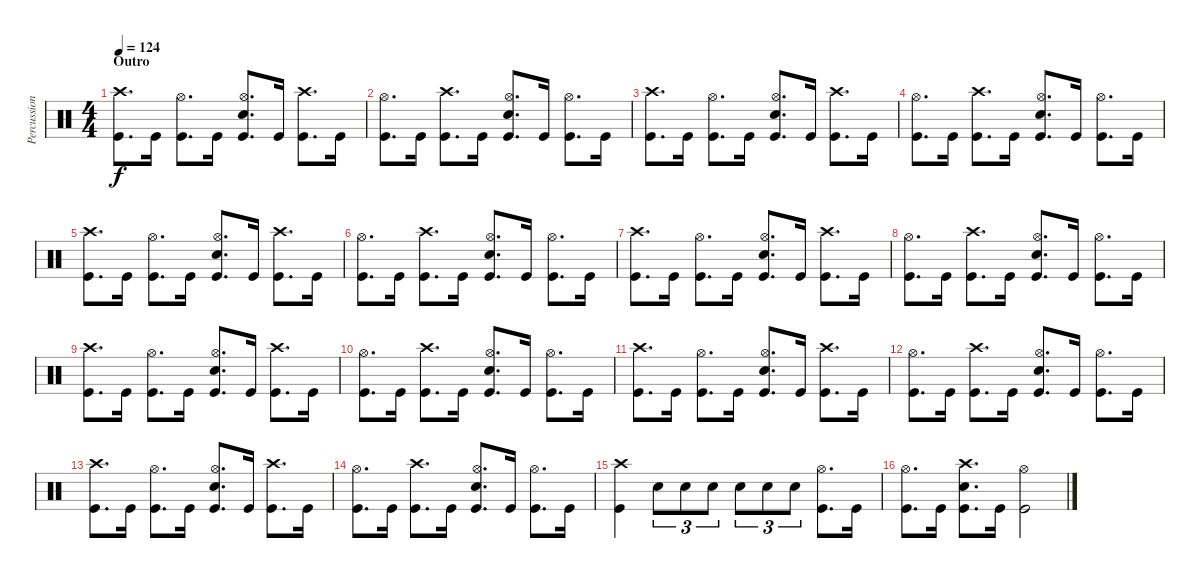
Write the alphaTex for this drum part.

\track ("Percussions" "Percussion") {instrument percussion}
\staff {score}
\articulation defaults
\ts (4 4)
\section ("" "Outro")
\tempo 124
\clef neutral
\ks c
("Crash high (hit)" "Kick (hit)").8{d dy f} "Kick (hit)".16 ("Hi-Hat (open)" "Kick (hit)").8{d} "Kick (hit)".16 ("Hi-Hat (open)" "Electric Snare (hit)" "Kick (hit)").8{d} "Kick (hit)".16 ("Crash high (hit)" "Kick (hit)").8{d} "Kick (hit)".16 |
("Hi-Hat (open)" "Kick (hit)").8{d} "Kick (hit)".16 ("Crash high (hit)" "Kick (hit)").8{d} "Kick (hit)".16 ("Hi-Hat (open)" "Electric Snare (hit)" "Kick (hit)").8{d} "Kick (hit)".16 ("Hi-Hat (open)" "Kick (hit)").8{d} "Kick (hit)".16 |
("Crash high (hit)" "Kick (hit)").8{d} "Kick (hit)".16 ("Hi-Hat (open)" "Kick (hit)").8{d} "Kick (hit)".16 ("Hi-Hat (open)" "Electric Snare (hit)" "Kick (hit)").8{d} "Kick (hit)".16 ("Crash high (hit)" "Kick (hit)").8{d} "Kick (hit)".16 |
("Hi-Hat (open)" "Kick (hit)").8{d} "Kick (hit)".16 ("Crash high (hit)" "Kick (hit)").8{d} "Kick (hit)".16 ("Hi-Hat (open)" "Electric Snare (hit)" "Kick (hit)").8{d} "Kick (hit)".16 ("Hi-Hat (open)" "Kick (hit)").8{d} "Kick (hit)".16 |
("Crash high (hit)" "Kick (hit)").8{d} "Kick (hit)".16 ("Hi-Hat (open)" "Kick (hit)").8{d} "Kick (hit)".16 ("Hi-Hat (open)" "Electric Snare (hit)" "Kick (hit)").8{d} "Kick (hit)".16 ("Crash high (hit)" "Kick (hit)").8{d} "Kick (hit)".16 |
("Hi-Hat (open)" "Kick (hit)").8{d} "Kick (hit)".16 ("Crash high (hit)" "Kick (hit)").8{d} "Kick (hit)".16 ("Hi-Hat (open)" "Electric Snare (hit)" "Kick (hit)").8{d} "Kick (hit)".16 ("Hi-Hat (open)" "Kick (hit)").8{d} "Kick (hit)".16 |
("Crash high (hit)" "Kick (hit)").8{d} "Kick (hit)".16 ("Hi-Hat (open)" "Kick (hit)").8{d} "Kick (hit)".16 ("Hi-Hat (open)" "Electric Snare (hit)" "Kick (hit)").8{d} "Kick (hit)".16 ("Crash high (hit)" "Kick (hit)").8{d} "Kick (hit)".16 |
("Hi-Hat (open)" "Kick (hit)").8{d} "Kick (hit)".16 ("Crash high (hit)" "Kick (hit)").8{d} "Kick (hit)".16 ("Hi-Hat (open)" "Electric Snare (hit)" "Kick (hit)").8{d} "Kick (hit)".16 ("Hi-Hat (open)" "Kick (hit)").8{d} "Kick (hit)".16 |
("Crash high (hit)" "Kick (hit)").8{d} "Kick (hit)".16 ("Hi-Hat (open)" "Kick (hit)").8{d} "Kick (hit)".16 ("Hi-Hat (open)" "Electric Snare (hit)" "Kick (hit)").8{d} "Kick (hit)".16 ("Crash high (hit)" "Kick (hit)").8{d} "Kick (hit)".16 |
("Hi-Hat (open)" "Kick (hit)").8{d} "Kick (hit)".16 ("Crash high (hit)" "Kick (hit)").8{d} "Kick (hit)".16 ("Hi-Hat (open)" "Electric Snare (hit)" "Kick (hit)").8{d} "Kick (hit)".16 ("Hi-Hat (open)" "Kick (hit)").8{d} "Kick (hit)".16 |
("Crash high (hit)" "Kick (hit)").8{d} "Kick (hit)".16 ("Hi-Hat (open)" "Kick (hit)").8{d} "Kick (hit)".16 ("Hi-Hat (open)" "Electric Snare (hit)" "Kick (hit)").8{d} "Kick (hit)".16 ("Crash high (hit)" "Kick (hit)").8{d} "Kick (hit)".16 |
("Hi-Hat (open)" "Kick (hit)").8{d} "Kick (hit)".16 ("Crash high (hit)" "Kick (hit)").8{d} "Kick (hit)".16 ("Hi-Hat (open)" "Electric Snare (hit)" "Kick (hit)").8{d} "Kick (hit)".16 ("Hi-Hat (open)" "Kick (hit)").8{d} "Kick (hit)".16 |
("Crash high (hit)" "Kick (hit)").8{d} "Kick (hit)".16 ("Hi-Hat (open)" "Kick (hit)").8{d} "Kick (hit)".16 ("Hi-Hat (open)" "Electric Snare (hit)" "Kick (hit)").8{d} "Kick (hit)".16 ("Crash high (hit)" "Kick (hit)").8{d} "Kick (hit)".16 |
("Hi-Hat (open)" "Kick (hit)").8{d} "Kick (hit)".16 ("Crash high (hit)" "Kick (hit)").8{d} "Kick (hit)".16 ("Hi-Hat (open)" "Electric Snare (hit)" "Kick (hit)").8{d} "Kick (hit)".16 ("Hi-Hat (open)" "Kick (hit)").8{d} "Kick (hit)".16 |
("Crash high (hit)" "Kick (hit)").4 "Electric Snare (hit)".8{tu (3 2)} "Electric Snare (hit)".8{tu (3 2)} "Electric Snare (hit)".8{tu (3 2)} "Electric Snare (hit)".8{tu (3 2)} "Electric Snare (hit)".8{tu (3 2)} "Electric Snare (hit)".8{tu (3 2)} ("Hi-Hat (open)" "Kick (hit)").8{d} "Kick (hit)".16 |
("Hi-Hat (open)" "Kick (hit)").8{d} "Kick (hit)".16 ("Crash high (hit)" "Electric Snare (hit)" "Kick (hit)").8{d} "Kick (hit)".16 ("Hi-Hat (open)" "Kick (hit)").2
